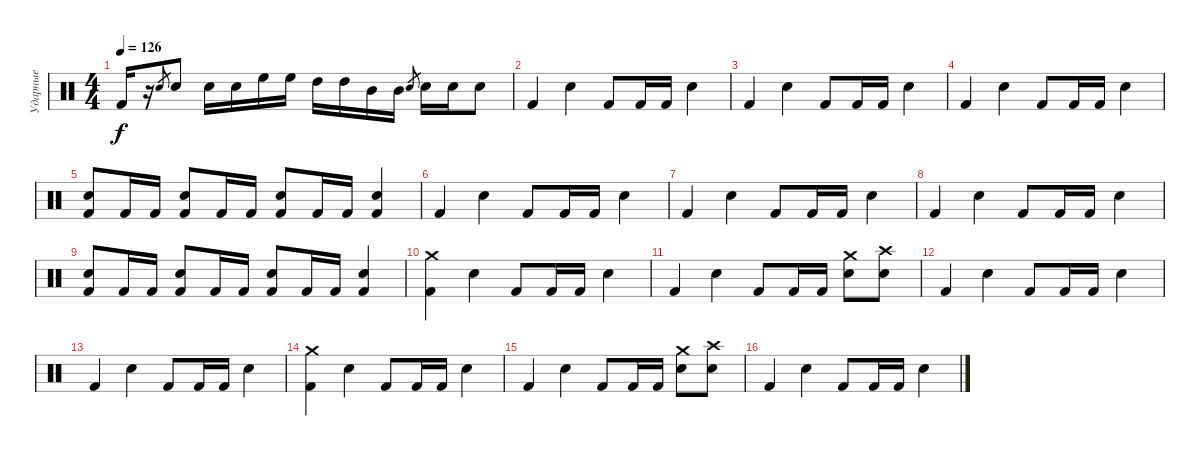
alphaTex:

\track ("Ударные" "Ударные") {instrument percussion}
\staff {score}
\articulation defaults
\ts (4 4)
\tempo 126
\clef neutral
\ks c "Kick (hit) 2".16{dy f}
r.16 "Snare (hit) 2".8{gr} "Snare (hit) 2".8 "Snare (hit) 2".16 "Snare (hit) 2".16 "High Floor Tom (hit)".16 "High Floor Tom (hit)".16 "High Tom (hit)".16 "High Tom (hit)".16 "Mid Tom (hit)".16 "Mid Tom (hit)".16 "Snare (hit) 2".8{gr} "Snare (hit) 2".16 "Snare (hit) 2".16 "Snare (hit) 2".8 |
"Kick (hit) 2".4 "Snare (hit) 2".4 "Kick (hit) 2".8 "Kick (hit) 2".16 "Kick (hit) 2".16 "Snare (hit) 2".4 |
"Kick (hit) 2".4 "Snare (hit) 2".4 "Kick (hit) 2".8 "Kick (hit) 2".16 "Kick (hit) 2".16 "Snare (hit) 2".4 |
"Kick (hit) 2".4 "Snare (hit) 2".4 "Kick (hit) 2".8 "Kick (hit) 2".16 "Kick (hit) 2".16 "Snare (hit) 2".4 |
("Kick (hit) 2" "Snare (hit) 2").8 "Kick (hit) 2".16 "Kick (hit) 2".16 ("Kick (hit) 2" "Snare (hit) 2").8 "Kick (hit) 2".16 "Kick (hit) 2".16 ("Kick (hit) 2" "Snare (hit) 2").8 "Kick (hit) 2".16 "Kick (hit) 2".16 ("Kick (hit) 2" "Snare (hit) 2").4 |
"Kick (hit) 2".4 "Snare (hit) 2".4 "Kick (hit) 2".8 "Kick (hit) 2".16 "Kick (hit) 2".16 "Snare (hit) 2".4 |
"Kick (hit) 2".4 "Snare (hit) 2".4 "Kick (hit) 2".8 "Kick (hit) 2".16 "Kick (hit) 2".16 "Snare (hit) 2".4 |
"Kick (hit) 2".4 "Snare (hit) 2".4 "Kick (hit) 2".8 "Kick (hit) 2".16 "Kick (hit) 2".16 "Snare (hit) 2".4 |
("Kick (hit) 2" "Snare (hit) 2").8 "Kick (hit) 2".16 "Kick (hit) 2".16 ("Kick (hit) 2" "Snare (hit) 2").8 "Kick (hit) 2".16 "Kick (hit) 2".16 ("Kick (hit) 2" "Snare (hit) 2").8 "Kick (hit) 2".16 "Kick (hit) 2".16 ("Kick (hit) 2" "Snare (hit) 2").4 |
("Kick (hit) 2" "Crash medium (hit)").4 "Snare (hit) 2".4 "Kick (hit) 2".8 "Kick (hit) 2".16 "Kick (hit) 2".16 "Snare (hit) 2".4 |
"Kick (hit) 2".4 "Snare (hit) 2".4 "Kick (hit) 2".8 "Kick (hit) 2".16 "Kick (hit) 2".16 ("Snare (hit) 2" "Crash medium (hit)").8 ("Snare (hit) 2" "Crash high (hit)").8 |
"Kick (hit) 2".4 "Snare (hit) 2".4 "Kick (hit) 2".8 "Kick (hit) 2".16 "Kick (hit) 2".16 "Snare (hit) 2".4 |
"Kick (hit) 2".4 "Snare (hit) 2".4 "Kick (hit) 2".8 "Kick (hit) 2".16 "Kick (hit) 2".16 "Snare (hit) 2".4 |
("Kick (hit) 2" "Crash medium (hit)").4 "Snare (hit) 2".4 "Kick (hit) 2".8 "Kick (hit) 2".16 "Kick (hit) 2".16 "Snare (hit) 2".4 |
"Kick (hit) 2".4 "Snare (hit) 2".4 "Kick (hit) 2".8 "Kick (hit) 2".16 "Kick (hit) 2".16 ("Snare (hit) 2" "Crash medium (hit)").8 ("Snare (hit) 2" "Crash high (hit)").8 |
"Kick (hit) 2".4 "Snare (hit) 2".4 "Kick (hit) 2".8 "Kick (hit) 2".16 "Kick (hit) 2".16 "Snare (hit) 2".4
